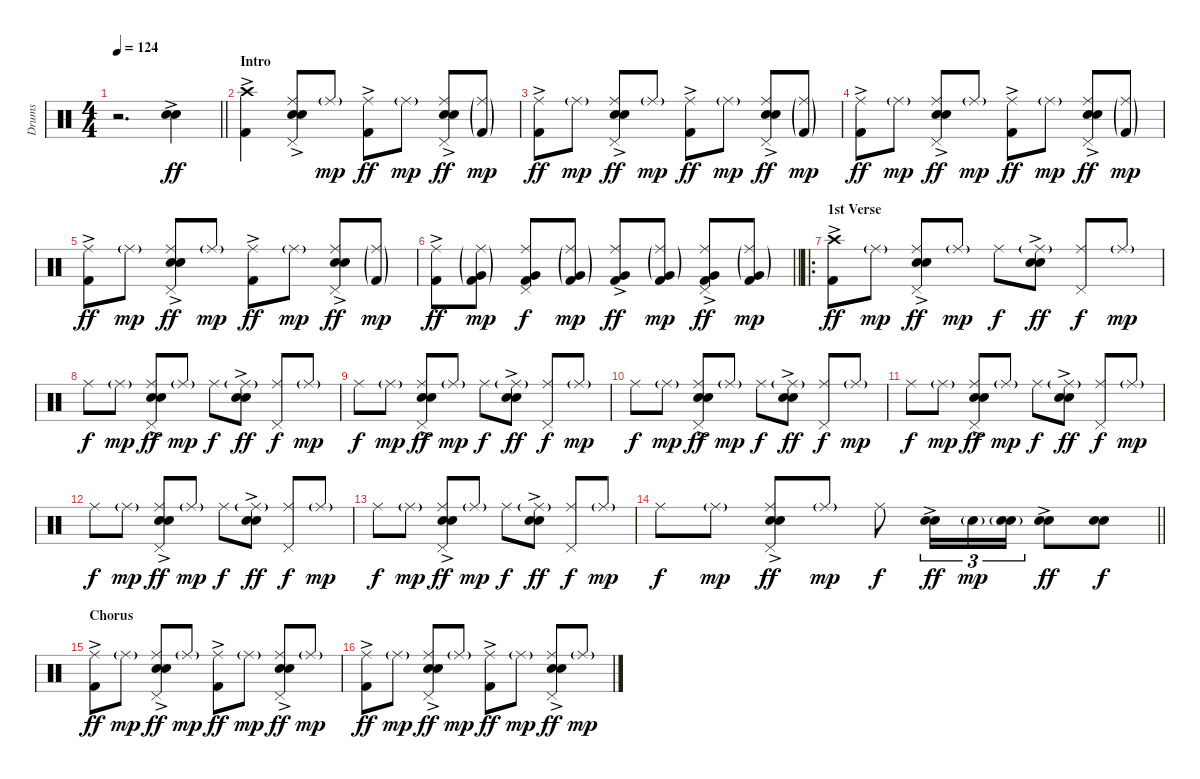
\track ("Drums" "Drums") {instrument percussion}
\staff {score}
\articulation defaults
\ts (4 4)
\tempo 124
\clef neutral
\barLineRight lightlight
\ks c
r.2{d dy ff} ("Electric Snare (hit)"{ac} "Snare (hit) 2").4 |
\section ("" "Intro")
("Crash high (hit)" "Kick (hit) 2"{ac}).4 ("Ride (middle)" "Electric Snare (hit)"{ac} "Snare (hit) 2" "Pedal Hi-Hat (hit)").8 "Ride (middle)"{g}.8{dy mp} ("Ride (middle)" "Kick (hit) 2"{ac}).8{dy ff} "Ride (middle)"{g}.8{dy mp} ("Ride (middle)" "Electric Snare (hit)"{ac} "Snare (hit) 2" "Pedal Hi-Hat (hit)").8{dy ff} ("Ride (middle)"{g} "Kick (hit) 2"{g}).8{dy mp} |
("Ride (middle)" "Kick (hit) 2"{ac}).8{dy ff} "Ride (middle)"{g}.8{dy mp} ("Ride (middle)" "Electric Snare (hit)"{ac} "Snare (hit) 2" "Pedal Hi-Hat (hit)").8{dy ff} "Ride (middle)"{g}.8{dy mp} ("Ride (middle)" "Kick (hit) 2"{ac}).8{dy ff} "Ride (middle)"{g}.8{dy mp} ("Ride (middle)" "Electric Snare (hit)"{ac} "Snare (hit) 2" "Pedal Hi-Hat (hit)").8{dy ff} ("Ride (middle)"{g} "Kick (hit) 2"{g}).8{dy mp} |
("Ride (middle)" "Kick (hit) 2"{ac}).8{dy ff} "Ride (middle)"{g}.8{dy mp} ("Ride (middle)" "Electric Snare (hit)"{ac} "Snare (hit) 2" "Pedal Hi-Hat (hit)").8{dy ff} "Ride (middle)"{g}.8{dy mp} ("Ride (middle)" "Kick (hit) 2"{ac}).8{dy ff} "Ride (middle)"{g}.8{dy mp} ("Ride (middle)" "Electric Snare (hit)"{ac} "Snare (hit) 2" "Pedal Hi-Hat (hit)").8{dy ff} ("Ride (middle)"{g} "Kick (hit) 2"{g}).8{dy mp} |
("Ride (middle)" "Kick (hit) 2"{ac}).8{dy ff} "Ride (middle)"{g}.8{dy mp} ("Ride (middle)" "Electric Snare (hit)"{ac} "Snare (hit) 2" "Pedal Hi-Hat (hit)").8{dy ff} "Ride (middle)"{g}.8{dy mp} ("Ride (middle)" "Kick (hit) 2"{ac}).8{dy ff} "Ride (middle)"{g}.8{dy mp} ("Ride (middle)" "Electric Snare (hit)"{ac} "Snare (hit) 2" "Pedal Hi-Hat (hit)").8{dy ff} ("Ride (middle)"{g} "Kick (hit) 2"{g}).8{dy mp} |
\barLineRight lightlight
("Ride (middle)" "Kick (hit) 2"{ac}).8{dy ff} ("Ride (middle)"{g} "Very Low Tom (hit)"{g} "Kick (hit) 2"{g}).8{dy mp} ("Ride (middle)" "Pedal Hi-Hat (hit)" "Very Low Tom (hit)" "Kick (hit) 2").8{dy f} ("Ride (middle)"{g} "Very Low Tom (hit)"{g} "Kick (hit) 2"{g}).8{dy mp} ("Ride (middle)" "Very Low Tom (hit)" "Kick (hit) 2"{ac}).8{dy ff} ("Ride (middle)"{g} "Very Low Tom (hit)"{g} "Kick (hit) 2").8{dy mp} ("Ride (middle)" "Pedal Hi-Hat (hit)" "Very Low Tom (hit)" "Kick (hit) 2"{ac}).8{dy ff} ("Ride (middle)"{g} "Very Low Tom (hit)"{g} "Kick (hit) 2").8{dy mp} |
\ro
\section ("" "1st Verse")
("Crash high (hit)" "Kick (hit) 2"{ac}).8{dy ff} "Ride (middle)"{g}.8{dy mp} ("Ride (middle)" "Electric Snare (hit)"{ac} "Snare (hit) 2" "Pedal Hi-Hat (hit)").8{dy ff} "Ride (middle)"{g}.8{dy mp} "Ride (middle)".8{dy f} ("Ride (middle)"{g} "Electric Snare (hit)"{ac} "Snare (hit) 2").8{dy ff} ("Ride (middle)" "Pedal Hi-Hat (hit)").8{dy f} "Ride (middle)"{g}.8{dy mp} |
"Ride (middle)".8{dy f} "Ride (middle)"{g}.8{dy mp} ("Ride (middle)" "Electric Snare (hit)"{ac} "Snare (hit) 2" "Pedal Hi-Hat (hit)").8{dy ff} "Ride (middle)"{g}.8{dy mp} "Ride (middle)".8{dy f} ("Ride (middle)"{g} "Electric Snare (hit)"{ac} "Snare (hit) 2").8{dy ff} ("Ride (middle)" "Pedal Hi-Hat (hit)").8{dy f} "Ride (middle)"{g}.8{dy mp} |
"Ride (middle)".8{dy f} "Ride (middle)"{g}.8{dy mp} ("Ride (middle)" "Electric Snare (hit)"{ac} "Snare (hit) 2" "Pedal Hi-Hat (hit)").8{dy ff} "Ride (middle)"{g}.8{dy mp} "Ride (middle)".8{dy f} ("Ride (middle)"{g} "Electric Snare (hit)"{ac} "Snare (hit) 2").8{dy ff} ("Ride (middle)" "Pedal Hi-Hat (hit)").8{dy f} "Ride (middle)"{g}.8{dy mp} |
"Ride (middle)".8{dy f} "Ride (middle)"{g}.8{dy mp} ("Ride (middle)" "Electric Snare (hit)"{ac} "Snare (hit) 2" "Pedal Hi-Hat (hit)").8{dy ff} "Ride (middle)"{g}.8{dy mp} "Ride (middle)".8{dy f} ("Ride (middle)"{g} "Electric Snare (hit)"{ac} "Snare (hit) 2").8{dy ff} ("Ride (middle)" "Pedal Hi-Hat (hit)").8{dy f} "Ride (middle)"{g}.8{dy mp} |
"Ride (middle)".8{dy f} "Ride (middle)"{g}.8{dy mp} ("Ride (middle)" "Electric Snare (hit)"{ac} "Snare (hit) 2" "Pedal Hi-Hat (hit)").8{dy ff} "Ride (middle)"{g}.8{dy mp} "Ride (middle)".8{dy f} ("Ride (middle)"{g} "Electric Snare (hit)"{ac} "Snare (hit) 2").8{dy ff} ("Ride (middle)" "Pedal Hi-Hat (hit)").8{dy f} "Ride (middle)"{g}.8{dy mp} |
"Ride (middle)".8{dy f} "Ride (middle)"{g}.8{dy mp} ("Ride (middle)" "Electric Snare (hit)"{ac} "Snare (hit) 2" "Pedal Hi-Hat (hit)").8{dy ff} "Ride (middle)"{g}.8{dy mp} "Ride (middle)".8{dy f} ("Ride (middle)"{g} "Electric Snare (hit)"{ac} "Snare (hit) 2").8{dy ff} ("Ride (middle)" "Pedal Hi-Hat (hit)").8{dy f} "Ride (middle)"{g}.8{dy mp} |
"Ride (middle)".8{dy f} "Ride (middle)"{g}.8{dy mp} ("Ride (middle)" "Electric Snare (hit)"{ac} "Snare (hit) 2" "Pedal Hi-Hat (hit)").8{dy ff} "Ride (middle)"{g}.8{dy mp} "Ride (middle)".8{dy f} ("Ride (middle)"{g} "Electric Snare (hit)"{ac} "Snare (hit) 2").8{dy ff} ("Ride (middle)" "Pedal Hi-Hat (hit)").8{dy f} "Ride (middle)"{g}.8{dy mp} |
\barLineRight lightlight "Ride (middle)".8{dy f} "Ride (middle)"{g}.8{dy mp}
("Ride (middle)" "Electric Snare (hit)"{ac} "Snare (hit) 2" "Pedal Hi-Hat (hit)").8{dy ff} "Ride (middle)"{g}.8{dy mp} "Ride (middle)".8{dy f} ("Electric Snare (hit)"{ac} "Snare (hit) 2").16{tu (3 2) dy ff} "Snare (hit) 2"{g}.16{tu (3 2) dy mp} ("Electric Snare (hit)"{g} "Snare (hit) 2").16{tu (3 2)} ("Electric Snare (hit)"{ac} "Snare (hit) 2").8{dy ff} ("Electric Snare (hit)" "Snare (hit) 2").8{dy f} |
\section ("" "Chorus")
("Ride (middle)" "Kick (hit) 2"{ac}).8{dy ff} "Ride (middle)"{g}.8{dy mp} ("Ride (middle)" "Electric Snare (hit)"{ac} "Snare (hit) 2" "Pedal Hi-Hat (hit)").8{dy ff} "Ride (middle)"{g}.8{dy mp} ("Ride (middle)" "Kick (hit) 2"{ac}).8{dy ff} "Ride (middle)"{g}.8{dy mp} ("Ride (middle)" "Electric Snare (hit)"{ac} "Snare (hit) 2" "Pedal Hi-Hat (hit)").8{dy ff} "Ride (middle)"{g}.8{dy mp} |
("Ride (middle)" "Kick (hit) 2"{ac}).8{dy ff} "Ride (middle)"{g}.8{dy mp} ("Ride (middle)" "Electric Snare (hit)"{ac} "Snare (hit) 2" "Pedal Hi-Hat (hit)").8{dy ff} "Ride (middle)"{g}.8{dy mp} ("Ride (middle)" "Kick (hit) 2"{ac}).8{dy ff} "Ride (middle)"{g}.8{dy mp} ("Ride (middle)" "Electric Snare (hit)"{ac} "Snare (hit) 2" "Pedal Hi-Hat (hit)").8{dy ff} "Ride (middle)"{g}.8{dy mp}
